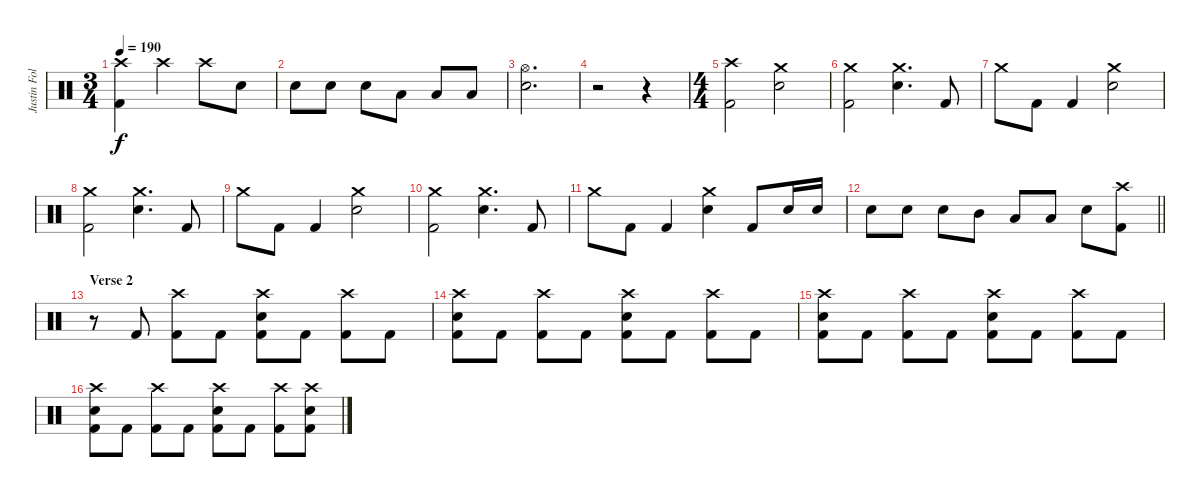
\track ("Justin Foley" "Justin Fol") {instrument percussion}
\staff {score}
\articulation defaults
\ts (3 4)
\tempo 190
\clef neutral
\ks c
("Crash high (hit)" "Kick (hit) 2").4{dy f} "Crash high (hit)".4 "Crash high (hit)".8 "Electric Snare (hit)".8 |
"Electric Snare (hit)".8 "Electric Snare (hit)".8 "Electric Snare (hit)".8 "Low Tom (hit)".8 "Low Tom (hit)".8 "Low Tom (hit)".8 |
("Hi-Hat (open)" "Electric Snare (hit)").2{d} |
r.2 r.4 |
\ts (4 4)
("Crash high (hit)" "Kick (hit) 2").2 ("Crash medium (hit)" "Electric Snare (hit)").2 |
("Crash medium (hit)" "Kick (hit) 2").2 ("Crash medium (hit)" "Electric Snare (hit)").4{d} "Kick (hit) 2".8 |
"Crash medium (hit)".8 "Kick (hit) 2".8 "Kick (hit) 2".4 ("Crash medium (hit)" "Electric Snare (hit)").2 |
("Crash medium (hit)" "Kick (hit) 2").2 ("Crash medium (hit)" "Electric Snare (hit)").4{d} "Kick (hit) 2".8 |
"Crash medium (hit)".8 "Kick (hit) 2".8 "Kick (hit) 2".4 ("Crash medium (hit)" "Electric Snare (hit)").2 |
("Crash medium (hit)" "Kick (hit) 2").2 ("Crash medium (hit)" "Electric Snare (hit)").4{d} "Kick (hit) 2".8 |
"Crash medium (hit)".8 "Kick (hit) 2".8 "Kick (hit) 2".4 ("Crash medium (hit)" "Electric Snare (hit)").4 "Kick (hit) 2".8 "Electric Snare (hit)".16 "Electric Snare (hit)".16 |
\barLineRight lightlight "Electric Snare (hit)".8 "Electric Snare (hit)".8 "Electric Snare (hit)".8 "Mid Tom (hit)".8 "Low Tom (hit)".8 "Low Tom (hit)".8 "Electric Snare (hit)".8
("Crash high (hit)" "Kick (hit) 2").8 |
\section ("" "Verse 2")
r.8 "Kick (hit) 2".8 ("Crash high (hit)" "Kick (hit) 2").8 "Kick (hit) 2".8 ("Crash high (hit)" "Electric Snare (hit)" "Kick (hit) 2").8 "Kick (hit) 2".8 ("Crash high (hit)" "Kick (hit) 2").8 "Kick (hit) 2".8 |
("Crash high (hit)" "Electric Snare (hit)" "Kick (hit) 2").8 "Kick (hit) 2".8 ("Crash high (hit)" "Kick (hit) 2").8 "Kick (hit) 2".8 ("Crash high (hit)" "Electric Snare (hit)" "Kick (hit) 2").8 "Kick (hit) 2".8 ("Crash high (hit)" "Kick (hit) 2").8 "Kick (hit) 2".8 |
("Crash high (hit)" "Electric Snare (hit)" "Kick (hit) 2").8 "Kick (hit) 2".8 ("Crash high (hit)" "Kick (hit) 2").8 "Kick (hit) 2".8 ("Crash high (hit)" "Electric Snare (hit)" "Kick (hit) 2").8 "Kick (hit) 2".8 ("Crash high (hit)" "Kick (hit) 2").8 "Kick (hit) 2".8 |
("Crash high (hit)" "Electric Snare (hit)" "Kick (hit) 2").8 "Kick (hit) 2".8 ("Crash high (hit)" "Kick (hit) 2").8 "Kick (hit) 2".8 ("Crash high (hit)" "Electric Snare (hit)" "Kick (hit) 2").8 "Kick (hit) 2".8 ("Crash high (hit)" "Kick (hit) 2").8 ("Crash high (hit)" "Electric Snare (hit)" "Kick (hit) 2").8
